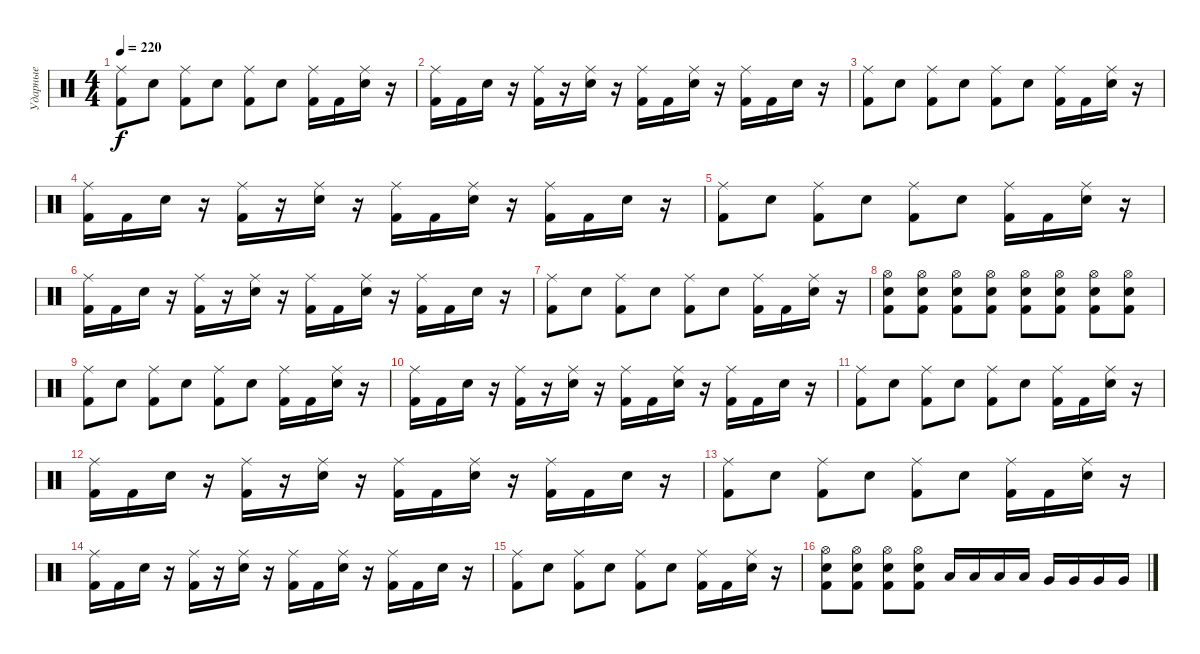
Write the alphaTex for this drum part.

\track ("Ударные" "Ударные") {instrument percussion}
\staff {score}
\articulation defaults
\ts (4 4)
\tempo 220
\clef neutral
\ks c
("Ride (middle)" "Kick (hit) 2").8{dy f} "Electric Snare (hit)".8 ("Kick (hit) 2" "Ride (middle)").8 "Electric Snare (hit)".8 ("Ride (middle)" "Kick (hit) 2").8 "Electric Snare (hit)".8 ("Ride (middle)" "Kick (hit) 2").16 "Kick (hit) 2".16 ("Ride (middle)" "Electric Snare (hit)").16 r.16 |
("Ride (middle)" "Kick (hit) 2").16 "Kick (hit) 2".16 "Electric Snare (hit)".16 r.16 ("Ride (middle)" "Kick (hit) 2").16 r.16 ("Ride (middle)" "Electric Snare (hit)").16 r.16 ("Kick (hit) 2" "Ride (middle)").16 "Kick (hit) 2".16 ("Ride (middle)" "Electric Snare (hit)").16 r.16 ("Kick (hit) 2" "Ride (middle)").16 "Kick (hit) 2".16 "Electric Snare (hit)".16 r.16 |
("Ride (middle)" "Kick (hit) 2").8 "Electric Snare (hit)".8 ("Kick (hit) 2" "Ride (middle)").8 "Electric Snare (hit)".8 ("Ride (middle)" "Kick (hit) 2").8 "Electric Snare (hit)".8 ("Ride (middle)" "Kick (hit) 2").16 "Kick (hit) 2".16 ("Ride (middle)" "Electric Snare (hit)").16 r.16 |
("Ride (middle)" "Kick (hit) 2").16 "Kick (hit) 2".16 "Electric Snare (hit)".16 r.16 ("Ride (middle)" "Kick (hit) 2").16 r.16 ("Ride (middle)" "Electric Snare (hit)").16 r.16 ("Kick (hit) 2" "Ride (middle)").16 "Kick (hit) 2".16 ("Ride (middle)" "Electric Snare (hit)").16 r.16 ("Kick (hit) 2" "Ride (middle)").16 "Kick (hit) 2".16 "Electric Snare (hit)".16 r.16 |
("Ride (middle)" "Kick (hit) 2").8 "Electric Snare (hit)".8 ("Kick (hit) 2" "Ride (middle)").8 "Electric Snare (hit)".8 ("Ride (middle)" "Kick (hit) 2").8 "Electric Snare (hit)".8 ("Ride (middle)" "Kick (hit) 2").16 "Kick (hit) 2".16 ("Ride (middle)" "Electric Snare (hit)").16 r.16 |
("Ride (middle)" "Kick (hit) 2").16 "Kick (hit) 2".16 "Electric Snare (hit)".16 r.16 ("Ride (middle)" "Kick (hit) 2").16 r.16 ("Ride (middle)" "Electric Snare (hit)").16 r.16 ("Kick (hit) 2" "Ride (middle)").16 "Kick (hit) 2".16 ("Ride (middle)" "Electric Snare (hit)").16 r.16 ("Kick (hit) 2" "Ride (middle)").16 "Kick (hit) 2".16 "Electric Snare (hit)".16 r.16 |
("Ride (middle)" "Kick (hit) 2").8 "Electric Snare (hit)".8 ("Kick (hit) 2" "Ride (middle)").8 "Electric Snare (hit)".8 ("Ride (middle)" "Kick (hit) 2").8 "Electric Snare (hit)".8 ("Ride (middle)" "Kick (hit) 2").16 "Kick (hit) 2".16 ("Ride (middle)" "Electric Snare (hit)").16 r.16 |
("Kick (hit) 2" "Electric Snare (hit)" "Hi-Hat (open)").8 ("Hi-Hat (open)" "Kick (hit) 2" "Electric Snare (hit)").8 ("Electric Snare (hit)" "Kick (hit) 2" "Hi-Hat (open)").8 ("Hi-Hat (open)" "Kick (hit) 2" "Electric Snare (hit)").8 ("Electric Snare (hit)" "Kick (hit) 2" "Hi-Hat (open)").8 ("Hi-Hat (open)" "Kick (hit) 2" "Electric Snare (hit)").8 ("Kick (hit) 2" "Electric Snare (hit)" "Hi-Hat (open)").8 ("Hi-Hat (open)" "Kick (hit) 2" "Electric Snare (hit)").8 |
("Ride (middle)" "Kick (hit) 2").8 "Electric Snare (hit)".8 ("Kick (hit) 2" "Ride (middle)").8 "Electric Snare (hit)".8 ("Ride (middle)" "Kick (hit) 2").8 "Electric Snare (hit)".8 ("Ride (middle)" "Kick (hit) 2").16 "Kick (hit) 2".16 ("Ride (middle)" "Electric Snare (hit)").16 r.16 |
("Ride (middle)" "Kick (hit) 2").16 "Kick (hit) 2".16 "Electric Snare (hit)".16 r.16 ("Ride (middle)" "Kick (hit) 2").16 r.16 ("Ride (middle)" "Electric Snare (hit)").16 r.16 ("Kick (hit) 2" "Ride (middle)").16 "Kick (hit) 2".16 ("Ride (middle)" "Electric Snare (hit)").16 r.16 ("Kick (hit) 2" "Ride (middle)").16 "Kick (hit) 2".16 "Electric Snare (hit)".16 r.16 |
("Ride (middle)" "Kick (hit) 2").8 "Electric Snare (hit)".8 ("Kick (hit) 2" "Ride (middle)").8 "Electric Snare (hit)".8 ("Ride (middle)" "Kick (hit) 2").8 "Electric Snare (hit)".8 ("Ride (middle)" "Kick (hit) 2").16 "Kick (hit) 2".16 ("Ride (middle)" "Electric Snare (hit)").16 r.16 |
("Ride (middle)" "Kick (hit) 2").16 "Kick (hit) 2".16 "Electric Snare (hit)".16 r.16 ("Ride (middle)" "Kick (hit) 2").16 r.16 ("Ride (middle)" "Electric Snare (hit)").16 r.16 ("Kick (hit) 2" "Ride (middle)").16 "Kick (hit) 2".16 ("Ride (middle)" "Electric Snare (hit)").16 r.16 ("Kick (hit) 2" "Ride (middle)").16 "Kick (hit) 2".16 "Electric Snare (hit)".16 r.16 |
("Ride (middle)" "Kick (hit) 2").8 "Electric Snare (hit)".8 ("Kick (hit) 2" "Ride (middle)").8 "Electric Snare (hit)".8 ("Ride (middle)" "Kick (hit) 2").8 "Electric Snare (hit)".8 ("Ride (middle)" "Kick (hit) 2").16 "Kick (hit) 2".16 ("Ride (middle)" "Electric Snare (hit)").16 r.16 |
("Ride (middle)" "Kick (hit) 2").16 "Kick (hit) 2".16 "Electric Snare (hit)".16 r.16 ("Ride (middle)" "Kick (hit) 2").16 r.16 ("Ride (middle)" "Electric Snare (hit)").16 r.16 ("Kick (hit) 2" "Ride (middle)").16 "Kick (hit) 2".16 ("Ride (middle)" "Electric Snare (hit)").16 r.16 ("Kick (hit) 2" "Ride (middle)").16 "Kick (hit) 2".16 "Electric Snare (hit)".16 r.16 |
("Ride (middle)" "Kick (hit) 2").8 "Electric Snare (hit)".8 ("Kick (hit) 2" "Ride (middle)").8 "Electric Snare (hit)".8 ("Ride (middle)" "Kick (hit) 2").8 "Electric Snare (hit)".8 ("Ride (middle)" "Kick (hit) 2").16 "Kick (hit) 2".16 ("Ride (middle)" "Electric Snare (hit)").16 r.16 |
("Kick (hit) 2" "Electric Snare (hit)" "Hi-Hat (open)").8 ("Hi-Hat (open)" "Kick (hit) 2" "Electric Snare (hit)").8 ("Electric Snare (hit)" "Kick (hit) 2" "Hi-Hat (open)").8 ("Hi-Hat (open)" "Kick (hit) 2" "Electric Snare (hit)").8 "Low Tom (hit)".16 "Low Tom (hit)".16 "Low Tom (hit)".16 "Low Tom (hit)".16 "Very Low Tom (hit)".16 "Very Low Tom (hit)".16 "Very Low Tom (hit)".16 "Very Low Tom (hit)".16
